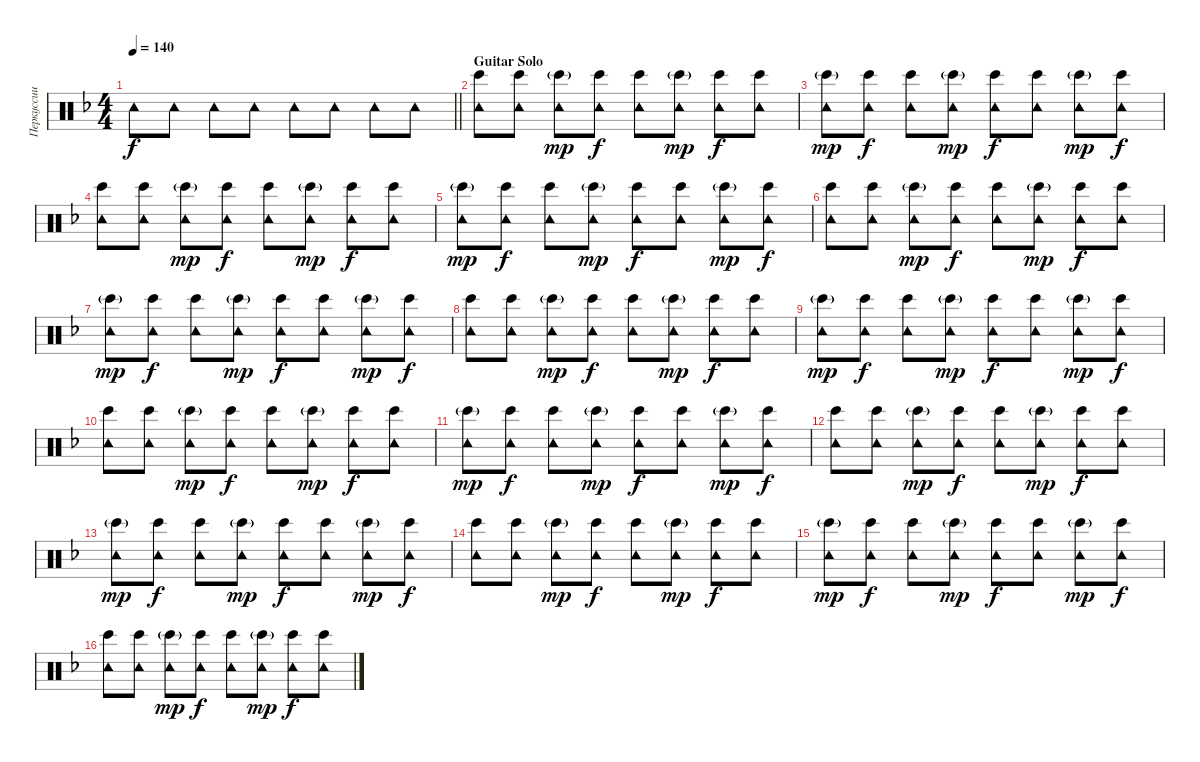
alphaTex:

\track ("Перкуссии" "Перкуссии") {instrument percussion}
\staff {score}
\articulation defaults
\ts (4 4)
\tempo 140
\clef neutral
\barLineRight lightlight
\ks dminor "Tambourine (hit)".8{dy f} "Tambourine (hit)".8 "Tambourine (hit)".8 "Tambourine (hit)".8 "Tambourine (hit)".8 "Tambourine (hit)".8 "Tambourine (hit)".8 "Tambourine (hit)".8
|
\section ("" "Guitar Solo")
("Bongo High (hit)" "Tambourine (hit)").8 ("Bongo High (hit)" "Tambourine (hit)").8 ("Bongo High (hit)"{g} "Tambourine (hit)").8{dy mp} ("Bongo High (hit)" "Tambourine (hit)").8{dy f} ("Bongo High (hit)" "Tambourine (hit)").8 ("Bongo High (hit)"{g} "Tambourine (hit)").8{dy mp} ("Bongo High (hit)" "Tambourine (hit)").8{dy f} ("Bongo High (hit)" "Tambourine (hit)").8 |
("Bongo High (hit)"{g} "Tambourine (hit)").8{dy mp} ("Bongo High (hit)" "Tambourine (hit)").8{dy f} ("Bongo High (hit)" "Tambourine (hit)").8 ("Bongo High (hit)"{g} "Tambourine (hit)").8{dy mp} ("Bongo High (hit)" "Tambourine (hit)").8{dy f} ("Bongo High (hit)" "Tambourine (hit)").8 ("Bongo High (hit)"{g} "Tambourine (hit)").8{dy mp} ("Bongo High (hit)" "Tambourine (hit)").8{dy f} |
("Bongo High (hit)" "Tambourine (hit)").8 ("Bongo High (hit)" "Tambourine (hit)").8 ("Bongo High (hit)"{g} "Tambourine (hit)").8{dy mp} ("Bongo High (hit)" "Tambourine (hit)").8{dy f} ("Bongo High (hit)" "Tambourine (hit)").8 ("Bongo High (hit)"{g} "Tambourine (hit)").8{dy mp} ("Bongo High (hit)" "Tambourine (hit)").8{dy f} ("Bongo High (hit)" "Tambourine (hit)").8 |
("Bongo High (hit)"{g} "Tambourine (hit)").8{dy mp} ("Bongo High (hit)" "Tambourine (hit)").8{dy f} ("Bongo High (hit)" "Tambourine (hit)").8 ("Bongo High (hit)"{g} "Tambourine (hit)").8{dy mp} ("Bongo High (hit)" "Tambourine (hit)").8{dy f} ("Bongo High (hit)" "Tambourine (hit)").8 ("Bongo High (hit)"{g} "Tambourine (hit)").8{dy mp} ("Bongo High (hit)" "Tambourine (hit)").8{dy f} |
("Bongo High (hit)" "Tambourine (hit)").8 ("Bongo High (hit)" "Tambourine (hit)").8 ("Bongo High (hit)"{g} "Tambourine (hit)").8{dy mp} ("Bongo High (hit)" "Tambourine (hit)").8{dy f} ("Bongo High (hit)" "Tambourine (hit)").8 ("Bongo High (hit)"{g} "Tambourine (hit)").8{dy mp} ("Bongo High (hit)" "Tambourine (hit)").8{dy f} ("Bongo High (hit)" "Tambourine (hit)").8 |
("Bongo High (hit)"{g} "Tambourine (hit)").8{dy mp} ("Bongo High (hit)" "Tambourine (hit)").8{dy f} ("Bongo High (hit)" "Tambourine (hit)").8 ("Bongo High (hit)"{g} "Tambourine (hit)").8{dy mp} ("Bongo High (hit)" "Tambourine (hit)").8{dy f} ("Bongo High (hit)" "Tambourine (hit)").8 ("Bongo High (hit)"{g} "Tambourine (hit)").8{dy mp} ("Bongo High (hit)" "Tambourine (hit)").8{dy f} |
("Bongo High (hit)" "Tambourine (hit)").8 ("Bongo High (hit)" "Tambourine (hit)").8 ("Bongo High (hit)"{g} "Tambourine (hit)").8{dy mp} ("Bongo High (hit)" "Tambourine (hit)").8{dy f} ("Bongo High (hit)" "Tambourine (hit)").8 ("Bongo High (hit)"{g} "Tambourine (hit)").8{dy mp} ("Bongo High (hit)" "Tambourine (hit)").8{dy f} ("Bongo High (hit)" "Tambourine (hit)").8 |
("Bongo High (hit)"{g} "Tambourine (hit)").8{dy mp} ("Bongo High (hit)" "Tambourine (hit)").8{dy f} ("Bongo High (hit)" "Tambourine (hit)").8 ("Bongo High (hit)"{g} "Tambourine (hit)").8{dy mp} ("Bongo High (hit)" "Tambourine (hit)").8{dy f} ("Bongo High (hit)" "Tambourine (hit)").8 ("Bongo High (hit)"{g} "Tambourine (hit)").8{dy mp} ("Bongo High (hit)" "Tambourine (hit)").8{dy f} |
("Bongo High (hit)" "Tambourine (hit)").8 ("Bongo High (hit)" "Tambourine (hit)").8 ("Bongo High (hit)"{g} "Tambourine (hit)").8{dy mp} ("Bongo High (hit)" "Tambourine (hit)").8{dy f} ("Bongo High (hit)" "Tambourine (hit)").8 ("Bongo High (hit)"{g} "Tambourine (hit)").8{dy mp} ("Bongo High (hit)" "Tambourine (hit)").8{dy f} ("Bongo High (hit)" "Tambourine (hit)").8 |
("Bongo High (hit)"{g} "Tambourine (hit)").8{dy mp} ("Bongo High (hit)" "Tambourine (hit)").8{dy f} ("Bongo High (hit)" "Tambourine (hit)").8 ("Bongo High (hit)"{g} "Tambourine (hit)").8{dy mp} ("Bongo High (hit)" "Tambourine (hit)").8{dy f} ("Bongo High (hit)" "Tambourine (hit)").8 ("Bongo High (hit)"{g} "Tambourine (hit)").8{dy mp} ("Bongo High (hit)" "Tambourine (hit)").8{dy f} |
("Bongo High (hit)" "Tambourine (hit)").8 ("Bongo High (hit)" "Tambourine (hit)").8 ("Bongo High (hit)"{g} "Tambourine (hit)").8{dy mp} ("Bongo High (hit)" "Tambourine (hit)").8{dy f} ("Bongo High (hit)" "Tambourine (hit)").8 ("Bongo High (hit)"{g} "Tambourine (hit)").8{dy mp} ("Bongo High (hit)" "Tambourine (hit)").8{dy f} ("Bongo High (hit)" "Tambourine (hit)").8 |
("Bongo High (hit)"{g} "Tambourine (hit)").8{dy mp} ("Bongo High (hit)" "Tambourine (hit)").8{dy f} ("Bongo High (hit)" "Tambourine (hit)").8 ("Bongo High (hit)"{g} "Tambourine (hit)").8{dy mp} ("Bongo High (hit)" "Tambourine (hit)").8{dy f} ("Bongo High (hit)" "Tambourine (hit)").8 ("Bongo High (hit)"{g} "Tambourine (hit)").8{dy mp} ("Bongo High (hit)" "Tambourine (hit)").8{dy f} |
("Bongo High (hit)" "Tambourine (hit)").8 ("Bongo High (hit)" "Tambourine (hit)").8 ("Bongo High (hit)"{g} "Tambourine (hit)").8{dy mp} ("Bongo High (hit)" "Tambourine (hit)").8{dy f} ("Bongo High (hit)" "Tambourine (hit)").8 ("Bongo High (hit)"{g} "Tambourine (hit)").8{dy mp} ("Bongo High (hit)" "Tambourine (hit)").8{dy f} ("Bongo High (hit)" "Tambourine (hit)").8 |
("Bongo High (hit)"{g} "Tambourine (hit)").8{dy mp} ("Bongo High (hit)" "Tambourine (hit)").8{dy f} ("Bongo High (hit)" "Tambourine (hit)").8 ("Bongo High (hit)"{g} "Tambourine (hit)").8{dy mp} ("Bongo High (hit)" "Tambourine (hit)").8{dy f} ("Bongo High (hit)" "Tambourine (hit)").8 ("Bongo High (hit)"{g} "Tambourine (hit)").8{dy mp} ("Bongo High (hit)" "Tambourine (hit)").8{dy f} |
("Bongo High (hit)" "Tambourine (hit)").8 ("Bongo High (hit)" "Tambourine (hit)").8 ("Bongo High (hit)"{g} "Tambourine (hit)").8{dy mp} ("Bongo High (hit)" "Tambourine (hit)").8{dy f} ("Bongo High (hit)" "Tambourine (hit)").8 ("Bongo High (hit)"{g} "Tambourine (hit)").8{dy mp} ("Bongo High (hit)" "Tambourine (hit)").8{dy f} ("Bongo High (hit)" "Tambourine (hit)").8
